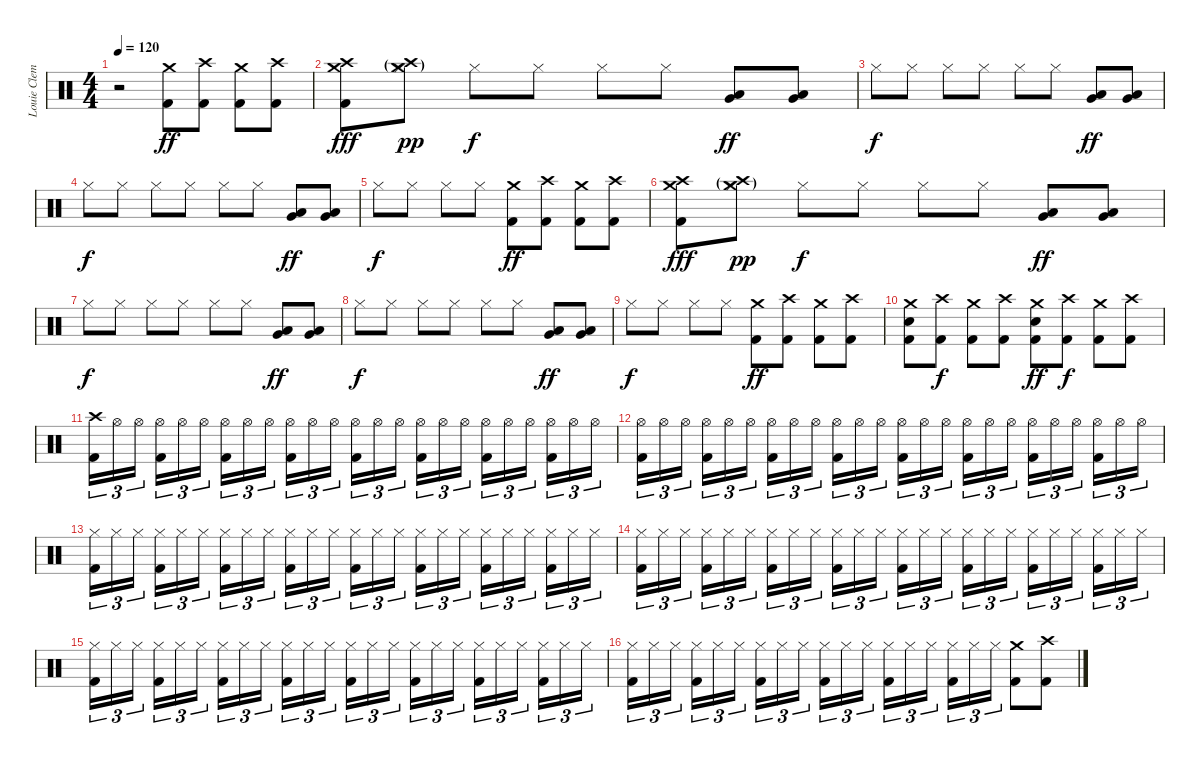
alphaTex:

\track ("Louie Clemente" "Louie Clem") {instrument percussion}
\staff {score}
\articulation defaults
\ts (4 4)
\tempo 120
\clef neutral
\ks c
r.2{dy ff} ("Crash medium (hit)" "Kick (hit) 2").8 ("Crash high (hit)" "Kick (hit) 2").8 ("Crash medium (hit)" "Kick (hit) 2").8 ("Crash high (hit)" "Kick (hit) 2").8 |
("Crash medium (hit)" "Crash high (hit)" "Kick (hit) 2").8{dy fff} ("Crash medium (hit)"{g} "Crash high (hit)"{g} "Hi-Hat (closed)").8{dy pp} "Hi-Hat (closed)".8{dy f} "Hi-Hat (closed)".8 "Hi-Hat (closed)".8 "Hi-Hat (closed)".8 ("Very Low Tom (hit)" "Low Floor Tom (hit)").8{dy ff} ("Very Low Tom (hit)" "Low Floor Tom (hit)").8 |
"Hi-Hat (closed)".8{dy f} "Hi-Hat (closed)".8 "Hi-Hat (closed)".8 "Hi-Hat (closed)".8 "Hi-Hat (closed)".8 "Hi-Hat (closed)".8 ("Very Low Tom (hit)" "Low Floor Tom (hit)").8{dy ff} ("Very Low Tom (hit)" "Low Floor Tom (hit)").8 |
"Hi-Hat (closed)".8{dy f} "Hi-Hat (closed)".8 "Hi-Hat (closed)".8 "Hi-Hat (closed)".8 "Hi-Hat (closed)".8 "Hi-Hat (closed)".8 ("Very Low Tom (hit)" "Low Floor Tom (hit)").8{dy ff} ("Very Low Tom (hit)" "Low Floor Tom (hit)").8 |
"Hi-Hat (closed)".8{dy f} "Hi-Hat (closed)".8 "Hi-Hat (closed)".8 "Hi-Hat (closed)".8 ("Crash medium (hit)" "Kick (hit) 2").8{dy ff} ("Crash high (hit)" "Kick (hit) 2").8 ("Crash medium (hit)" "Kick (hit) 2").8 ("Crash high (hit)" "Kick (hit) 2").8 |
("Crash medium (hit)" "Crash high (hit)" "Kick (hit) 2").8{dy fff} ("Crash medium (hit)"{g} "Crash high (hit)"{g} "Hi-Hat (closed)").8{dy pp} "Hi-Hat (closed)".8{dy f} "Hi-Hat (closed)".8 "Hi-Hat (closed)".8 "Hi-Hat (closed)".8 ("Very Low Tom (hit)" "Low Floor Tom (hit)").8{dy ff} ("Very Low Tom (hit)" "Low Floor Tom (hit)").8 |
"Hi-Hat (closed)".8{dy f} "Hi-Hat (closed)".8 "Hi-Hat (closed)".8 "Hi-Hat (closed)".8 "Hi-Hat (closed)".8 "Hi-Hat (closed)".8 ("Very Low Tom (hit)" "Low Floor Tom (hit)").8{dy ff} ("Very Low Tom (hit)" "Low Floor Tom (hit)").8 |
"Hi-Hat (closed)".8{dy f} "Hi-Hat (closed)".8 "Hi-Hat (closed)".8 "Hi-Hat (closed)".8 "Hi-Hat (closed)".8 "Hi-Hat (closed)".8 ("Very Low Tom (hit)" "Low Floor Tom (hit)").8{dy ff} ("Very Low Tom (hit)" "Low Floor Tom (hit)").8 |
"Hi-Hat (closed)".8{dy f} "Hi-Hat (closed)".8 "Hi-Hat (closed)".8 "Hi-Hat (closed)".8 ("Crash medium (hit)" "Kick (hit) 2").8{dy ff} ("Crash high (hit)" "Kick (hit) 2").8 ("Crash medium (hit)" "Kick (hit) 2").8 ("Crash high (hit)" "Kick (hit) 2").8 |
("Snare (hit) 2" "Crash medium (hit)" "Kick (hit) 2").8 ("Crash high (hit)" "Kick (hit) 2").8{dy f} ("Crash medium (hit)" "Kick (hit) 2").8 ("Crash high (hit)" "Kick (hit) 2").8 ("Snare (hit) 2" "Crash medium (hit)" "Kick (hit) 2").8{dy ff} ("Crash high (hit)" "Kick (hit) 2").8{dy f} ("Crash medium (hit)" "Kick (hit) 2").8 ("Crash high (hit)" "Kick (hit) 2").8 |
("Crash high (hit)" "Kick (hit) 2").16{tu (3 2)} "Hi-Hat (open)".16{tu (3 2)} "Hi-Hat (open)".16{tu (3 2)} ("Hi-Hat (open)" "Kick (hit) 2").16{tu (3 2)} "Hi-Hat (open)".16{tu (3 2)} "Hi-Hat (open)".16{tu (3 2)} ("Hi-Hat (open)" "Kick (hit) 2").16{tu (3 2)} "Hi-Hat (open)".16{tu (3 2)} "Hi-Hat (open)".16{tu (3 2)} ("Hi-Hat (open)" "Kick (hit) 2").16{tu (3 2)} "Hi-Hat (open)".16{tu (3 2)} "Hi-Hat (open)".16{tu (3 2)} ("Hi-Hat (open)" "Kick (hit) 2").16{tu (3 2)} "Hi-Hat (open)".16{tu (3 2)} "Hi-Hat (open)".16{tu (3 2)} ("Hi-Hat (open)" "Kick (hit) 2").16{tu (3 2)} "Hi-Hat (open)".16{tu (3 2)} "Hi-Hat (open)".16{tu (3 2)} ("Hi-Hat (open)" "Kick (hit) 2").16{tu (3 2)} "Hi-Hat (open)".16{tu (3 2)} "Hi-Hat (open)".16{tu (3 2)} ("Hi-Hat (open)" "Kick (hit) 2").16{tu (3 2)} "Hi-Hat (open)".16{tu (3 2)} "Hi-Hat (open)".16{tu (3 2)} |
("Hi-Hat (open)" "Kick (hit) 2").16{tu (3 2)} "Hi-Hat (open)".16{tu (3 2)} "Hi-Hat (open)".16{tu (3 2)} ("Hi-Hat (open)" "Kick (hit) 2").16{tu (3 2)} "Hi-Hat (open)".16{tu (3 2)} "Hi-Hat (open)".16{tu (3 2)} ("Hi-Hat (open)" "Kick (hit) 2").16{tu (3 2)} "Hi-Hat (open)".16{tu (3 2)} "Hi-Hat (open)".16{tu (3 2)} ("Hi-Hat (open)" "Kick (hit) 2").16{tu (3 2)} "Hi-Hat (open)".16{tu (3 2)} "Hi-Hat (open)".16{tu (3 2)} ("Hi-Hat (open)" "Kick (hit) 2").16{tu (3 2)} "Hi-Hat (open)".16{tu (3 2)} "Hi-Hat (open)".16{tu (3 2)} ("Hi-Hat (open)" "Kick (hit) 2").16{tu (3 2)} "Hi-Hat (open)".16{tu (3 2)} "Hi-Hat (open)".16{tu (3 2)} ("Hi-Hat (open)" "Kick (hit) 2").16{tu (3 2)} "Hi-Hat (open)".16{tu (3 2)} "Hi-Hat (open)".16{tu (3 2)} ("Hi-Hat (open)" "Kick (hit) 2").16{tu (3 2)} "Hi-Hat (open)".16{tu (3 2)} "Hi-Hat (open)".16{tu (3 2)} |
("Hi-Hat (closed)" "Kick (hit) 2").16{tu (3 2)} "Hi-Hat (closed)".16{tu (3 2)} "Hi-Hat (closed)".16{tu (3 2)} ("Hi-Hat (closed)" "Kick (hit) 2").16{tu (3 2)} "Hi-Hat (closed)".16{tu (3 2)} "Hi-Hat (closed)".16{tu (3 2)} ("Hi-Hat (closed)" "Kick (hit) 2").16{tu (3 2)} "Hi-Hat (closed)".16{tu (3 2)} "Hi-Hat (closed)".16{tu (3 2)} ("Hi-Hat (closed)" "Kick (hit) 2").16{tu (3 2)} "Hi-Hat (closed)".16{tu (3 2)} "Hi-Hat (closed)".16{tu (3 2)} ("Hi-Hat (closed)" "Kick (hit) 2").16{tu (3 2)} "Hi-Hat (closed)".16{tu (3 2)} "Hi-Hat (closed)".16{tu (3 2)} ("Hi-Hat (closed)" "Kick (hit) 2").16{tu (3 2)} "Hi-Hat (closed)".16{tu (3 2)} "Hi-Hat (closed)".16{tu (3 2)} ("Hi-Hat (closed)" "Kick (hit) 2").16{tu (3 2)} "Hi-Hat (closed)".16{tu (3 2)} "Hi-Hat (closed)".16{tu (3 2)} ("Hi-Hat (closed)" "Kick (hit) 2").16{tu (3 2)} "Hi-Hat (closed)".16{tu (3 2)} "Hi-Hat (closed)".16{tu (3 2)} |
("Hi-Hat (closed)" "Kick (hit) 2").16{tu (3 2)} "Hi-Hat (closed)".16{tu (3 2)} "Hi-Hat (closed)".16{tu (3 2)} ("Hi-Hat (closed)" "Kick (hit) 2").16{tu (3 2)} "Hi-Hat (closed)".16{tu (3 2)} "Hi-Hat (closed)".16{tu (3 2)} ("Hi-Hat (closed)" "Kick (hit) 2").16{tu (3 2)} "Hi-Hat (closed)".16{tu (3 2)} "Hi-Hat (closed)".16{tu (3 2)} ("Hi-Hat (closed)" "Kick (hit) 2").16{tu (3 2)} "Hi-Hat (closed)".16{tu (3 2)} "Hi-Hat (closed)".16{tu (3 2)} ("Hi-Hat (closed)" "Kick (hit) 2").16{tu (3 2)} "Hi-Hat (closed)".16{tu (3 2)} "Hi-Hat (closed)".16{tu (3 2)} ("Hi-Hat (closed)" "Kick (hit) 2").16{tu (3 2)} "Hi-Hat (closed)".16{tu (3 2)} "Hi-Hat (closed)".16{tu (3 2)} ("Hi-Hat (closed)" "Kick (hit) 2").16{tu (3 2)} "Hi-Hat (closed)".16{tu (3 2)} "Hi-Hat (closed)".16{tu (3 2)} ("Hi-Hat (closed)" "Kick (hit) 2").16{tu (3 2)} "Hi-Hat (closed)".16{tu (3 2)} "Hi-Hat (closed)".16{tu (3 2)} |
("Hi-Hat (closed)" "Kick (hit) 2").16{tu (3 2)} "Hi-Hat (closed)".16{tu (3 2)} "Hi-Hat (closed)".16{tu (3 2)} ("Hi-Hat (closed)" "Kick (hit) 2").16{tu (3 2)} "Hi-Hat (closed)".16{tu (3 2)} "Hi-Hat (closed)".16{tu (3 2)} ("Hi-Hat (closed)" "Kick (hit) 2").16{tu (3 2)} "Hi-Hat (closed)".16{tu (3 2)} "Hi-Hat (closed)".16{tu (3 2)} ("Hi-Hat (closed)" "Kick (hit) 2").16{tu (3 2)} "Hi-Hat (closed)".16{tu (3 2)} "Hi-Hat (closed)".16{tu (3 2)} ("Hi-Hat (closed)" "Kick (hit) 2").16{tu (3 2)} "Hi-Hat (closed)".16{tu (3 2)} "Hi-Hat (closed)".16{tu (3 2)} ("Hi-Hat (closed)" "Kick (hit) 2").16{tu (3 2)} "Hi-Hat (closed)".16{tu (3 2)} "Hi-Hat (closed)".16{tu (3 2)} ("Hi-Hat (closed)" "Kick (hit) 2").16{tu (3 2)} "Hi-Hat (closed)".16{tu (3 2)} "Hi-Hat (closed)".16{tu (3 2)} ("Hi-Hat (closed)" "Kick (hit) 2").16{tu (3 2)} "Hi-Hat (closed)".16{tu (3 2)} "Hi-Hat (closed)".16{tu (3 2)} |
("Hi-Hat (closed)" "Kick (hit) 2").16{tu (3 2)} "Hi-Hat (closed)".16{tu (3 2)} "Hi-Hat (closed)".16{tu (3 2)} ("Hi-Hat (closed)" "Kick (hit) 2").16{tu (3 2)} "Hi-Hat (closed)".16{tu (3 2)} "Hi-Hat (closed)".16{tu (3 2)} ("Hi-Hat (closed)" "Kick (hit) 2").16{tu (3 2)} "Hi-Hat (closed)".16{tu (3 2)} "Hi-Hat (closed)".16{tu (3 2)} ("Hi-Hat (closed)" "Kick (hit) 2").16{tu (3 2)} "Hi-Hat (closed)".16{tu (3 2)} "Hi-Hat (closed)".16{tu (3 2)} ("Hi-Hat (closed)" "Kick (hit) 2").16{tu (3 2)} "Hi-Hat (closed)".16{tu (3 2)} "Hi-Hat (closed)".16{tu (3 2)} ("Hi-Hat (closed)" "Kick (hit) 2").16{tu (3 2)} "Hi-Hat (closed)".16{tu (3 2)} "Hi-Hat (closed)".16{tu (3 2)} ("Crash medium (hit)" "Kick (hit) 2").8 ("Crash high (hit)" "Kick (hit) 2").8
